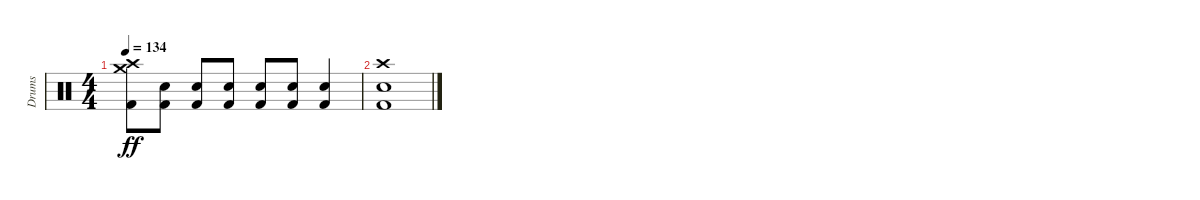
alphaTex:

\track ("Drums" "Drums") {instrument percussion}
\staff {score}
\articulation defaults
\ts (4 4)
\tempo 134
\clef neutral
\ks c
("Crash high (hit)" "Crash medium (hit)" "Kick (hit) 2").8{dy ff} ("Snare (hit) 2" "Kick (hit) 2").8 ("Snare (hit) 2" "Kick (hit) 2").8 ("Snare (hit) 2" "Kick (hit) 2").8 ("Snare (hit) 2" "Kick (hit) 2").8 ("Snare (hit) 2" "Kick (hit) 2").8 ("Snare (hit) 2" "Kick (hit) 2").4 |
("Crash high (hit)" "Snare (hit) 2" "Kick (hit) 2").1
